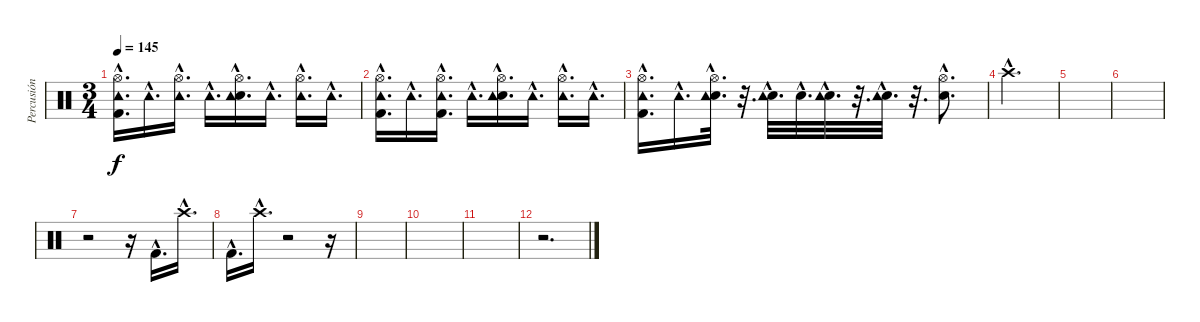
\track ("Percusión" "Percusión") {instrument percussion}
\staff {score}
\articulation defaults
\ts (3 4)
\tempo 145
\clef neutral
\ks c
("Hi-Hat (open)"{hac} "Kick (hit) 2"{hac} "Tambourine (hit)"{hac}).16{d dy f} "Tambourine (hit)"{hac}.16{d} ("Hi-Hat (open)"{hac} "Tambourine (hit)"{hac}).16{d} "Tambourine (hit)"{hac}.16{d} ("Hi-Hat (open)"{hac} "Electric Snare (hit)"{hac} "Tambourine (hit)"{hac}).16{d} "Tambourine (hit)"{hac}.16{d} ("Hi-Hat (open)"{hac} "Tambourine (hit)"{hac}).16{d} "Tambourine (hit)"{hac}.16{d} |
("Hi-Hat (open)"{hac} "Kick (hit) 2"{hac} "Tambourine (hit)"{hac}).16{d} "Tambourine (hit)"{hac}.16{d} ("Hi-Hat (open)"{hac} "Kick (hit) 2"{hac} "Tambourine (hit)"{hac}).16{d} "Tambourine (hit)"{hac}.16{d} ("Hi-Hat (open)"{hac} "Electric Snare (hit)"{hac} "Tambourine (hit)"{hac}).16{d} "Tambourine (hit)"{hac}.16{d} ("Hi-Hat (open)"{hac} "Tambourine (hit)"{hac}).16{d} "Tambourine (hit)"{hac}.16{d} |
("Hi-Hat (open)"{hac} "Kick (hit) 2"{hac} "Tambourine (hit)"{hac}).16{d} "Tambourine (hit)"{hac}.16{d} ("Hi-Hat (open)"{hac} "Electric Snare (hit)"{hac} "Tambourine (hit)"{hac}).32{d} r.32{d} ("Electric Snare (hit)"{hac} "Tambourine (hit)"{hac}).32{d} "Electric Snare (hit)"{hac}.32{d} ("Electric Snare (hit)"{hac} "Tambourine (hit)"{hac}).32{d} r.32{d} ("Electric Snare (hit)"{hac} "Tambourine (hit)"{hac}).32{d} r.32{d} ("Hi-Hat (open)"{hac} "Electric Snare (hit)"{hac}).8{d} |
"Crash high (hit)"{hac}.2{d} |
|
|
r.2 r.16 "Kick (hit) 2"{hac}.16{d} "Crash high (hit)"{hac}.16{d} |
"Kick (hit) 2"{hac}.16{d} "Crash high (hit)"{hac}.16{d} r.2 r.16 |
|
|
|
r.2{d}
